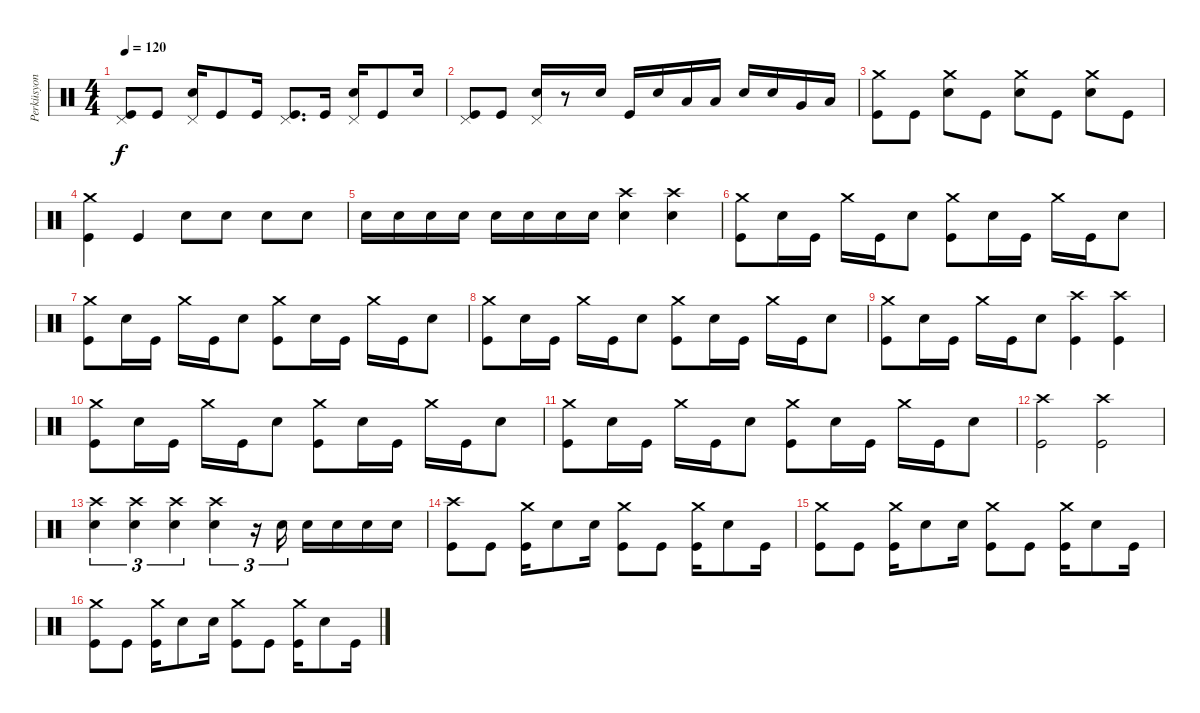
\track ("Perküsyon" "Perküsyon") {instrument percussion}
\staff {score}
\articulation defaults
\ts (4 4)
\tempo 120
\clef neutral
\ks c
("Kick (hit)" "Pedal Hi-Hat (hit)").8{dy f} "Kick (hit)".8 ("Snare (hit) 2" "Pedal Hi-Hat (hit)").16 "Kick (hit)".8 "Kick (hit)".16 ("Kick (hit)" "Pedal Hi-Hat (hit)").8{d} "Kick (hit)".16 ("Snare (hit) 2" "Pedal Hi-Hat (hit)").16 "Kick (hit)".8 "Snare (hit) 2".16 |
("Kick (hit)" "Pedal Hi-Hat (hit)").8 "Kick (hit)".8 ("Snare (hit) 2" "Pedal Hi-Hat (hit)").16 r.8 "Snare (hit) 2".16 "Kick (hit)".16 "Snare (hit) 2".16 "Low Tom (hit)".16 "Low Tom (hit)".16 "Snare (hit) 2".16 "Snare (hit) 2".16 "Very Low Tom (hit)".16 "Low Floor Tom (hit)".16 |
("Kick (hit)" "Crash medium (hit)").8 "Kick (hit)".8 ("Snare (hit) 2" "Crash medium (hit)").8 "Kick (hit)".8 ("Snare (hit) 2" "Crash medium (hit)").8 "Kick (hit)".8 ("Snare (hit) 2" "Crash medium (hit)").8 "Kick (hit)".8 |
("Kick (hit)" "Crash medium (hit)").4 "Kick (hit)".4 "Snare (hit) 2".8 "Snare (hit) 2".8 "Snare (hit) 2".8 "Snare (hit) 2".8 |
"Snare (hit) 2".16 "Snare (hit) 2".16 "Snare (hit) 2".16 "Snare (hit) 2".16 "Snare (hit) 2".16 "Snare (hit) 2".16 "Snare (hit) 2".16 "Snare (hit) 2".16 ("Snare (hit) 2" "Crash high (hit)").4 ("Snare (hit) 2" "Crash high (hit)").4 |
("Kick (hit)" "Crash medium (hit)").8 "Snare (hit) 2".16 "Kick (hit)".16 "Crash medium (hit)".16 "Kick (hit)".16 "Snare (hit) 2".8 ("Kick (hit)" "Crash medium (hit)").8 "Snare (hit) 2".16 "Kick (hit)".16 "Crash medium (hit)".16 "Kick (hit)".16 "Snare (hit) 2".8 |
("Kick (hit)" "Crash medium (hit)").8 "Snare (hit) 2".16 "Kick (hit)".16 "Crash medium (hit)".16 "Kick (hit)".16 "Snare (hit) 2".8 ("Kick (hit)" "Crash medium (hit)").8 "Snare (hit) 2".16 "Kick (hit)".16 "Crash medium (hit)".16 "Kick (hit)".16 "Snare (hit) 2".8 |
("Kick (hit)" "Crash medium (hit)").8 "Snare (hit) 2".16 "Kick (hit)".16 "Crash medium (hit)".16 "Kick (hit)".16 "Snare (hit) 2".8 ("Kick (hit)" "Crash medium (hit)").8 "Snare (hit) 2".16 "Kick (hit)".16 "Crash medium (hit)".16 "Kick (hit)".16 "Snare (hit) 2".8 |
("Kick (hit)" "Crash medium (hit)").8 "Snare (hit) 2".16 "Kick (hit)".16 "Crash medium (hit)".16 "Kick (hit)".16 "Snare (hit) 2".8 ("Kick (hit)" "Crash high (hit)").4 ("Kick (hit)" "Crash high (hit)").4 |
("Kick (hit)" "Crash medium (hit)").8 "Snare (hit) 2".16 "Kick (hit)".16 "Crash medium (hit)".16 "Kick (hit)".16 "Snare (hit) 2".8 ("Kick (hit)" "Crash medium (hit)").8 "Snare (hit) 2".16 "Kick (hit)".16 "Crash medium (hit)".16 "Kick (hit)".16 "Snare (hit) 2".8 |
("Kick (hit)" "Crash medium (hit)").8 "Snare (hit) 2".16 "Kick (hit)".16 "Crash medium (hit)".16 "Kick (hit)".16 "Snare (hit) 2".8 ("Kick (hit)" "Crash medium (hit)").8 "Snare (hit) 2".16 "Kick (hit)".16 "Crash medium (hit)".16 "Kick (hit)".16 "Snare (hit) 2".8 |
("Kick (hit)" "Crash high (hit)").2 ("Kick (hit)" "Crash high (hit)").2 |
("Snare (hit) 2" "Crash high (hit)").4{tu (3 2)} ("Snare (hit) 2" "Crash high (hit)").4{tu (3 2)} ("Snare (hit) 2" "Crash high (hit)").4{tu (3 2)} ("Snare (hit) 2" "Crash high (hit)").4{tu (3 2)} r.16{tu (3 2)} "Snare (hit) 2".16{tu (3 2)} "Snare (hit) 2".16 "Snare (hit) 2".16 "Snare (hit) 2".16 "Snare (hit) 2".16 |
("Kick (hit)" "Crash high (hit)").8 "Kick (hit)".8 ("Kick (hit)" "Crash medium (hit)").16 "Snare (hit) 2".8 "Snare (hit) 2".16 ("Kick (hit)" "Crash medium (hit)").8 "Kick (hit)".8 ("Kick (hit)" "Crash medium (hit)").16 "Snare (hit) 2".8 "Kick (hit)".16 |
("Kick (hit)" "Crash medium (hit)").8 "Kick (hit)".8 ("Kick (hit)" "Crash medium (hit)").16 "Snare (hit) 2".8 "Snare (hit) 2".16 ("Kick (hit)" "Crash medium (hit)").8 "Kick (hit)".8 ("Kick (hit)" "Crash medium (hit)").16 "Snare (hit) 2".8 "Kick (hit)".16 |
("Kick (hit)" "Crash medium (hit)").8 "Kick (hit)".8 ("Kick (hit)" "Crash medium (hit)").16 "Snare (hit) 2".8 "Snare (hit) 2".16 ("Kick (hit)" "Crash medium (hit)").8 "Kick (hit)".8 ("Kick (hit)" "Crash medium (hit)").16 "Snare (hit) 2".8 "Kick (hit)".16
